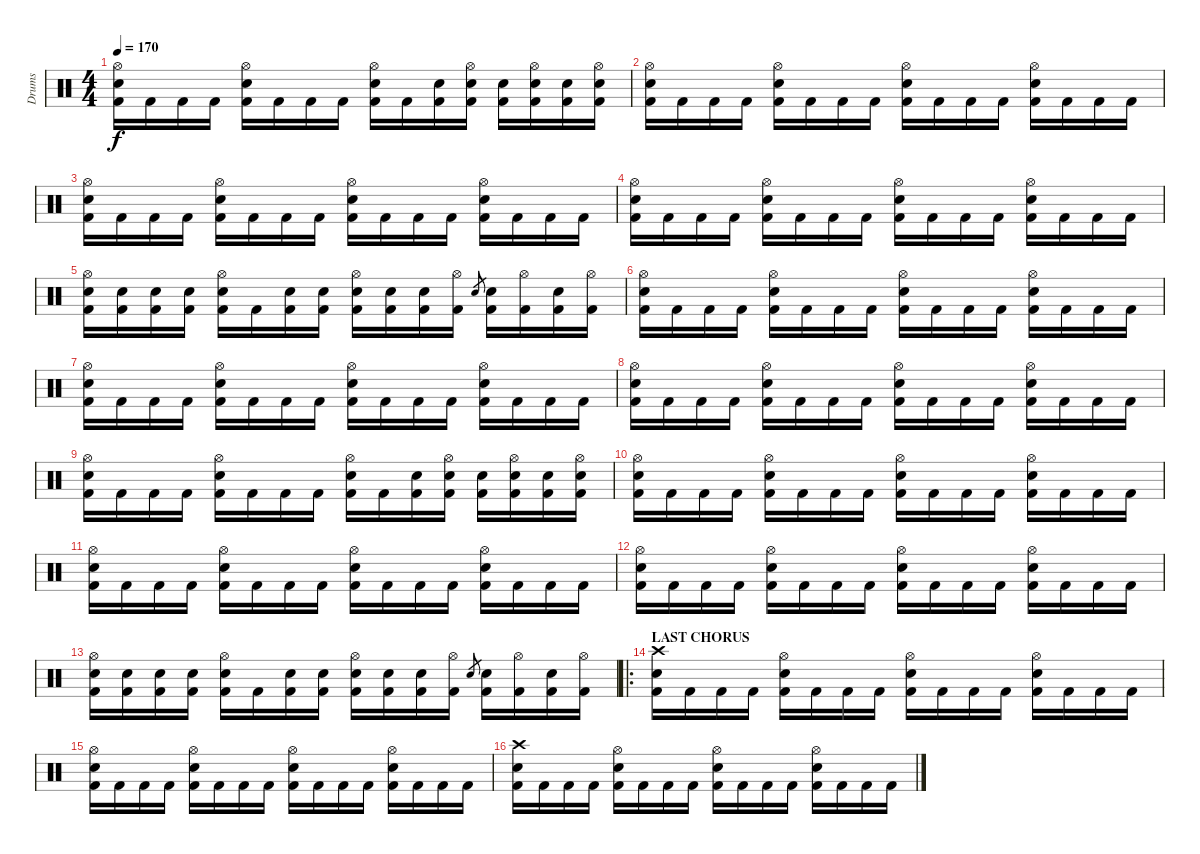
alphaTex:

\track ("Drums" "Drums") {instrument percussion}
\staff {score}
\articulation defaults
\ts (4 4)
\tempo 170
\clef neutral
\ks c
("Hi-Hat (open)" "Electric Snare (hit)" "Kick (hit) 2").16{dy f} "Kick (hit) 2".16 "Kick (hit) 2".16 "Kick (hit) 2".16 ("Hi-Hat (open)" "Electric Snare (hit)" "Kick (hit) 2").16 "Kick (hit) 2".16 "Kick (hit) 2".16 "Kick (hit) 2".16 ("Hi-Hat (open)" "Electric Snare (hit)" "Kick (hit) 2").16 "Kick (hit) 2".16 ("Electric Snare (hit)" "Kick (hit) 2").16 ("Hi-Hat (open)" "Electric Snare (hit)" "Kick (hit) 2").16 ("Electric Snare (hit)" "Kick (hit) 2").16 ("Hi-Hat (open)" "Electric Snare (hit)" "Kick (hit) 2").16 ("Electric Snare (hit)" "Kick (hit) 2").16 ("Hi-Hat (open)" "Electric Snare (hit)" "Kick (hit) 2").16 |
("Hi-Hat (open)" "Electric Snare (hit)" "Kick (hit) 2").16 "Kick (hit) 2".16 "Kick (hit) 2".16 "Kick (hit) 2".16 ("Hi-Hat (open)" "Electric Snare (hit)" "Kick (hit) 2").16 "Kick (hit) 2".16 "Kick (hit) 2".16 "Kick (hit) 2".16 ("Hi-Hat (open)" "Electric Snare (hit)" "Kick (hit) 2").16 "Kick (hit) 2".16 "Kick (hit) 2".16 "Kick (hit) 2".16 ("Hi-Hat (open)" "Electric Snare (hit)" "Kick (hit) 2").16 "Kick (hit) 2".16 "Kick (hit) 2".16 "Kick (hit) 2".16 |
("Hi-Hat (open)" "Electric Snare (hit)" "Kick (hit) 2").16 "Kick (hit) 2".16 "Kick (hit) 2".16 "Kick (hit) 2".16 ("Hi-Hat (open)" "Electric Snare (hit)" "Kick (hit) 2").16 "Kick (hit) 2".16 "Kick (hit) 2".16 "Kick (hit) 2".16 ("Hi-Hat (open)" "Electric Snare (hit)" "Kick (hit) 2").16 "Kick (hit) 2".16 "Kick (hit) 2".16 "Kick (hit) 2".16 ("Hi-Hat (open)" "Electric Snare (hit)" "Kick (hit) 2").16 "Kick (hit) 2".16 "Kick (hit) 2".16 "Kick (hit) 2".16 |
("Hi-Hat (open)" "Electric Snare (hit)" "Kick (hit) 2").16 "Kick (hit) 2".16 "Kick (hit) 2".16 "Kick (hit) 2".16 ("Hi-Hat (open)" "Electric Snare (hit)" "Kick (hit) 2").16 "Kick (hit) 2".16 "Kick (hit) 2".16 "Kick (hit) 2".16 ("Hi-Hat (open)" "Electric Snare (hit)" "Kick (hit) 2").16 "Kick (hit) 2".16 "Kick (hit) 2".16 "Kick (hit) 2".16 ("Hi-Hat (open)" "Electric Snare (hit)" "Kick (hit) 2").16 "Kick (hit) 2".16 "Kick (hit) 2".16 "Kick (hit) 2".16 |
("Hi-Hat (open)" "Electric Snare (hit)" "Kick (hit) 2").16 ("Electric Snare (hit)" "Kick (hit) 2").16 ("Electric Snare (hit)" "Kick (hit) 2").16 ("Electric Snare (hit)" "Kick (hit) 2").16 ("Hi-Hat (open)" "Electric Snare (hit)" "Kick (hit) 2").16 "Kick (hit) 2".16 ("Electric Snare (hit)" "Kick (hit) 2").16 ("Electric Snare (hit)" "Kick (hit) 2").16 ("Hi-Hat (open)" "Electric Snare (hit)" "Kick (hit) 2").16 ("Electric Snare (hit)" "Kick (hit) 2").16 ("Electric Snare (hit)" "Kick (hit) 2").16 ("Hi-Hat (open)" "Kick (hit) 2").16 "Electric Snare (hit)".8{gr} ("Electric Snare (hit)" "Kick (hit) 2").16 ("Hi-Hat (open)" "Kick (hit) 2").16 ("Electric Snare (hit)" "Kick (hit) 2").16 ("Hi-Hat (open)" "Kick (hit) 2").16 |
("Hi-Hat (open)" "Electric Snare (hit)" "Kick (hit) 2").16 "Kick (hit) 2".16 "Kick (hit) 2".16 "Kick (hit) 2".16 ("Hi-Hat (open)" "Electric Snare (hit)" "Kick (hit) 2").16 "Kick (hit) 2".16 "Kick (hit) 2".16 "Kick (hit) 2".16 ("Hi-Hat (open)" "Electric Snare (hit)" "Kick (hit) 2").16 "Kick (hit) 2".16 "Kick (hit) 2".16 "Kick (hit) 2".16 ("Hi-Hat (open)" "Electric Snare (hit)" "Kick (hit) 2").16 "Kick (hit) 2".16 "Kick (hit) 2".16 "Kick (hit) 2".16 |
("Hi-Hat (open)" "Electric Snare (hit)" "Kick (hit) 2").16 "Kick (hit) 2".16 "Kick (hit) 2".16 "Kick (hit) 2".16 ("Hi-Hat (open)" "Electric Snare (hit)" "Kick (hit) 2").16 "Kick (hit) 2".16 "Kick (hit) 2".16 "Kick (hit) 2".16 ("Hi-Hat (open)" "Electric Snare (hit)" "Kick (hit) 2").16 "Kick (hit) 2".16 "Kick (hit) 2".16 "Kick (hit) 2".16 ("Hi-Hat (open)" "Electric Snare (hit)" "Kick (hit) 2").16 "Kick (hit) 2".16 "Kick (hit) 2".16 "Kick (hit) 2".16 |
("Hi-Hat (open)" "Electric Snare (hit)" "Kick (hit) 2").16 "Kick (hit) 2".16 "Kick (hit) 2".16 "Kick (hit) 2".16 ("Hi-Hat (open)" "Electric Snare (hit)" "Kick (hit) 2").16 "Kick (hit) 2".16 "Kick (hit) 2".16 "Kick (hit) 2".16 ("Hi-Hat (open)" "Electric Snare (hit)" "Kick (hit) 2").16 "Kick (hit) 2".16 "Kick (hit) 2".16 "Kick (hit) 2".16 ("Hi-Hat (open)" "Electric Snare (hit)" "Kick (hit) 2").16 "Kick (hit) 2".16 "Kick (hit) 2".16 "Kick (hit) 2".16 |
("Hi-Hat (open)" "Electric Snare (hit)" "Kick (hit) 2").16 "Kick (hit) 2".16 "Kick (hit) 2".16 "Kick (hit) 2".16 ("Hi-Hat (open)" "Electric Snare (hit)" "Kick (hit) 2").16 "Kick (hit) 2".16 "Kick (hit) 2".16 "Kick (hit) 2".16 ("Hi-Hat (open)" "Electric Snare (hit)" "Kick (hit) 2").16 "Kick (hit) 2".16 ("Electric Snare (hit)" "Kick (hit) 2").16 ("Hi-Hat (open)" "Electric Snare (hit)" "Kick (hit) 2").16 ("Electric Snare (hit)" "Kick (hit) 2").16 ("Hi-Hat (open)" "Electric Snare (hit)" "Kick (hit) 2").16 ("Electric Snare (hit)" "Kick (hit) 2").16 ("Hi-Hat (open)" "Electric Snare (hit)" "Kick (hit) 2").16 |
("Hi-Hat (open)" "Electric Snare (hit)" "Kick (hit) 2").16 "Kick (hit) 2".16 "Kick (hit) 2".16 "Kick (hit) 2".16 ("Hi-Hat (open)" "Electric Snare (hit)" "Kick (hit) 2").16 "Kick (hit) 2".16 "Kick (hit) 2".16 "Kick (hit) 2".16 ("Hi-Hat (open)" "Electric Snare (hit)" "Kick (hit) 2").16 "Kick (hit) 2".16 "Kick (hit) 2".16 "Kick (hit) 2".16 ("Hi-Hat (open)" "Electric Snare (hit)" "Kick (hit) 2").16 "Kick (hit) 2".16 "Kick (hit) 2".16 "Kick (hit) 2".16 |
("Hi-Hat (open)" "Electric Snare (hit)" "Kick (hit) 2").16 "Kick (hit) 2".16 "Kick (hit) 2".16 "Kick (hit) 2".16 ("Hi-Hat (open)" "Electric Snare (hit)" "Kick (hit) 2").16 "Kick (hit) 2".16 "Kick (hit) 2".16 "Kick (hit) 2".16 ("Hi-Hat (open)" "Electric Snare (hit)" "Kick (hit) 2").16 "Kick (hit) 2".16 "Kick (hit) 2".16 "Kick (hit) 2".16 ("Hi-Hat (open)" "Electric Snare (hit)" "Kick (hit) 2").16 "Kick (hit) 2".16 "Kick (hit) 2".16 "Kick (hit) 2".16 |
("Hi-Hat (open)" "Electric Snare (hit)" "Kick (hit) 2").16 "Kick (hit) 2".16 "Kick (hit) 2".16 "Kick (hit) 2".16 ("Hi-Hat (open)" "Electric Snare (hit)" "Kick (hit) 2").16 "Kick (hit) 2".16 "Kick (hit) 2".16 "Kick (hit) 2".16 ("Hi-Hat (open)" "Electric Snare (hit)" "Kick (hit) 2").16 "Kick (hit) 2".16 "Kick (hit) 2".16 "Kick (hit) 2".16 ("Hi-Hat (open)" "Electric Snare (hit)" "Kick (hit) 2").16 "Kick (hit) 2".16 "Kick (hit) 2".16 "Kick (hit) 2".16 |
("Hi-Hat (open)" "Electric Snare (hit)" "Kick (hit) 2").16 ("Electric Snare (hit)" "Kick (hit) 2").16 ("Electric Snare (hit)" "Kick (hit) 2").16 ("Electric Snare (hit)" "Kick (hit) 2").16 ("Hi-Hat (open)" "Electric Snare (hit)" "Kick (hit) 2").16 "Kick (hit) 2".16 ("Electric Snare (hit)" "Kick (hit) 2").16 ("Electric Snare (hit)" "Kick (hit) 2").16 ("Hi-Hat (open)" "Electric Snare (hit)" "Kick (hit) 2").16 ("Electric Snare (hit)" "Kick (hit) 2").16 ("Electric Snare (hit)" "Kick (hit) 2").16 ("Hi-Hat (open)" "Kick (hit) 2").16 "Electric Snare (hit)".8{gr} ("Electric Snare (hit)" "Kick (hit) 2").16 ("Hi-Hat (open)" "Kick (hit) 2").16 ("Electric Snare (hit)" "Kick (hit) 2").16 ("Hi-Hat (open)" "Kick (hit) 2").16 |
\ro
\section ("" "LAST CHORUS")
("Crash high (hit)" "Electric Snare (hit)" "Kick (hit) 2").16 "Kick (hit) 2".16 "Kick (hit) 2".16 "Kick (hit) 2".16 ("Hi-Hat (open)" "Electric Snare (hit)" "Kick (hit) 2").16 "Kick (hit) 2".16 "Kick (hit) 2".16 "Kick (hit) 2".16 ("Hi-Hat (open)" "Electric Snare (hit)" "Kick (hit) 2").16 "Kick (hit) 2".16 "Kick (hit) 2".16 "Kick (hit) 2".16 ("Hi-Hat (open)" "Electric Snare (hit)" "Kick (hit) 2").16 "Kick (hit) 2".16 "Kick (hit) 2".16 "Kick (hit) 2".16 |
("Hi-Hat (open)" "Electric Snare (hit)" "Kick (hit) 2").16 "Kick (hit) 2".16 "Kick (hit) 2".16 "Kick (hit) 2".16 ("Hi-Hat (open)" "Electric Snare (hit)" "Kick (hit) 2").16 "Kick (hit) 2".16 "Kick (hit) 2".16 "Kick (hit) 2".16 ("Hi-Hat (open)" "Electric Snare (hit)" "Kick (hit) 2").16 "Kick (hit) 2".16 "Kick (hit) 2".16 "Kick (hit) 2".16 ("Hi-Hat (open)" "Electric Snare (hit)" "Kick (hit) 2").16 "Kick (hit) 2".16 "Kick (hit) 2".16 "Kick (hit) 2".16 |
("Crash high (hit)" "Electric Snare (hit)" "Kick (hit) 2").16 "Kick (hit) 2".16 "Kick (hit) 2".16 "Kick (hit) 2".16 ("Hi-Hat (open)" "Electric Snare (hit)" "Kick (hit) 2").16 "Kick (hit) 2".16 "Kick (hit) 2".16 "Kick (hit) 2".16 ("Hi-Hat (open)" "Electric Snare (hit)" "Kick (hit) 2").16 "Kick (hit) 2".16 "Kick (hit) 2".16 "Kick (hit) 2".16 ("Hi-Hat (open)" "Electric Snare (hit)" "Kick (hit) 2").16 "Kick (hit) 2".16 "Kick (hit) 2".16 "Kick (hit) 2".16
